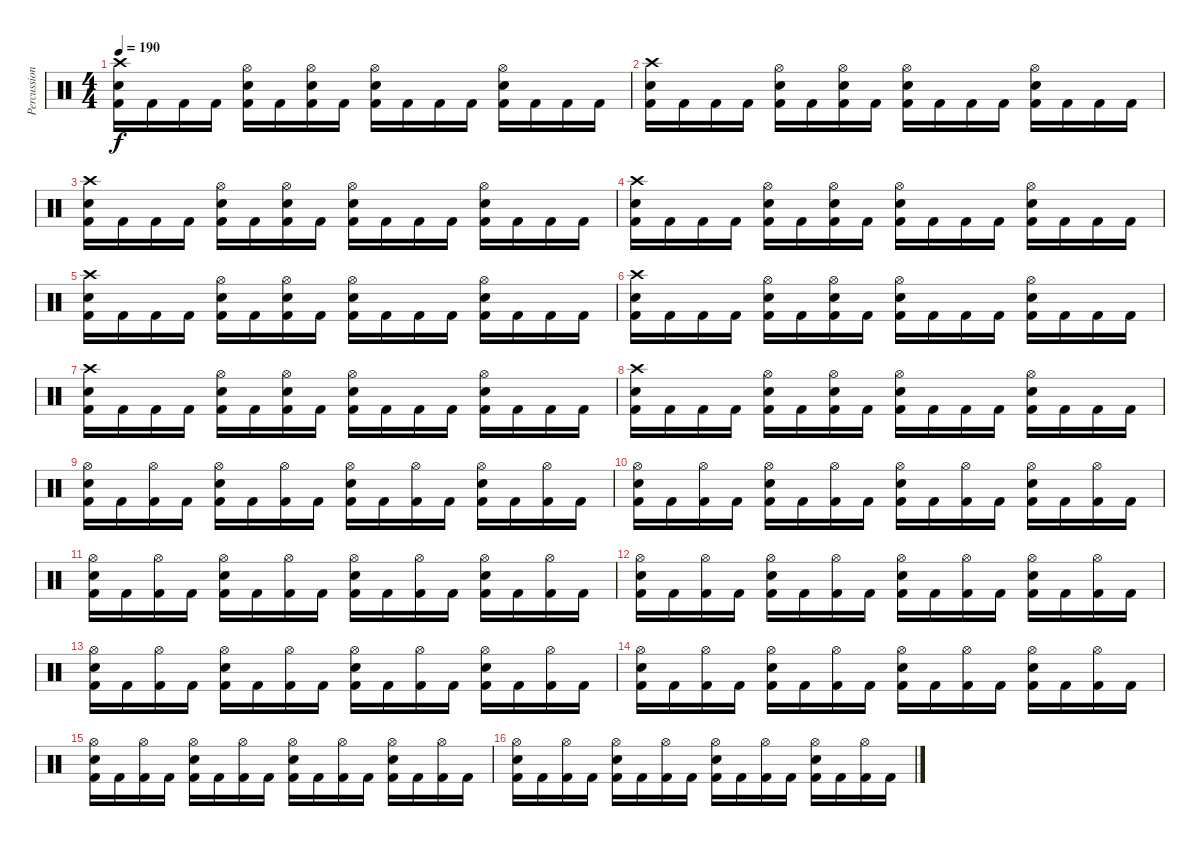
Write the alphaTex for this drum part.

\track ("Percussion" "Percussion") {instrument percussion}
\staff {score}
\articulation defaults
\ts (4 4)
\tempo 190
\clef neutral
\ks c
("Kick (hit) 2" "Snare (hit) 2" "Crash high (hit)").16{dy f} "Kick (hit) 2".16 "Kick (hit) 2".16 "Kick (hit) 2".16 ("Kick (hit) 2" "Snare (hit) 2" "Hi-Hat (open)").16 "Kick (hit) 2".16 ("Kick (hit) 2" "Snare (hit) 2" "Hi-Hat (open)").16 "Kick (hit) 2".16 ("Kick (hit) 2" "Snare (hit) 2" "Hi-Hat (open)").16 "Kick (hit) 2".16 "Kick (hit) 2".16 "Kick (hit) 2".16 ("Kick (hit) 2" "Snare (hit) 2" "Hi-Hat (open)").16 "Kick (hit) 2".16 "Kick (hit) 2".16 "Kick (hit) 2".16 |
("Kick (hit) 2" "Snare (hit) 2" "Crash high (hit)").16 "Kick (hit) 2".16 "Kick (hit) 2".16 "Kick (hit) 2".16 ("Kick (hit) 2" "Snare (hit) 2" "Hi-Hat (open)").16 "Kick (hit) 2".16 ("Kick (hit) 2" "Snare (hit) 2" "Hi-Hat (open)").16 "Kick (hit) 2".16 ("Kick (hit) 2" "Snare (hit) 2" "Hi-Hat (open)").16 "Kick (hit) 2".16 "Kick (hit) 2".16 "Kick (hit) 2".16 ("Kick (hit) 2" "Snare (hit) 2" "Hi-Hat (open)").16 "Kick (hit) 2".16 "Kick (hit) 2".16 "Kick (hit) 2".16 |
("Kick (hit) 2" "Snare (hit) 2" "Crash high (hit)").16 "Kick (hit) 2".16 "Kick (hit) 2".16 "Kick (hit) 2".16 ("Kick (hit) 2" "Snare (hit) 2" "Hi-Hat (open)").16 "Kick (hit) 2".16 ("Kick (hit) 2" "Snare (hit) 2" "Hi-Hat (open)").16 "Kick (hit) 2".16 ("Kick (hit) 2" "Snare (hit) 2" "Hi-Hat (open)").16 "Kick (hit) 2".16 "Kick (hit) 2".16 "Kick (hit) 2".16 ("Kick (hit) 2" "Snare (hit) 2" "Hi-Hat (open)").16 "Kick (hit) 2".16 "Kick (hit) 2".16 "Kick (hit) 2".16 |
("Kick (hit) 2" "Snare (hit) 2" "Crash high (hit)").16 "Kick (hit) 2".16 "Kick (hit) 2".16 "Kick (hit) 2".16 ("Kick (hit) 2" "Snare (hit) 2" "Hi-Hat (open)").16 "Kick (hit) 2".16 ("Kick (hit) 2" "Snare (hit) 2" "Hi-Hat (open)").16 "Kick (hit) 2".16 ("Kick (hit) 2" "Snare (hit) 2" "Hi-Hat (open)").16 "Kick (hit) 2".16 "Kick (hit) 2".16 "Kick (hit) 2".16 ("Kick (hit) 2" "Snare (hit) 2" "Hi-Hat (open)").16 "Kick (hit) 2".16 "Kick (hit) 2".16 "Kick (hit) 2".16 |
("Kick (hit) 2" "Snare (hit) 2" "Crash high (hit)").16 "Kick (hit) 2".16 "Kick (hit) 2".16 "Kick (hit) 2".16 ("Kick (hit) 2" "Snare (hit) 2" "Hi-Hat (open)").16 "Kick (hit) 2".16 ("Kick (hit) 2" "Snare (hit) 2" "Hi-Hat (open)").16 "Kick (hit) 2".16 ("Kick (hit) 2" "Snare (hit) 2" "Hi-Hat (open)").16 "Kick (hit) 2".16 "Kick (hit) 2".16 "Kick (hit) 2".16 ("Kick (hit) 2" "Snare (hit) 2" "Hi-Hat (open)").16 "Kick (hit) 2".16 "Kick (hit) 2".16 "Kick (hit) 2".16 |
("Kick (hit) 2" "Snare (hit) 2" "Crash high (hit)").16 "Kick (hit) 2".16 "Kick (hit) 2".16 "Kick (hit) 2".16 ("Kick (hit) 2" "Snare (hit) 2" "Hi-Hat (open)").16 "Kick (hit) 2".16 ("Kick (hit) 2" "Snare (hit) 2" "Hi-Hat (open)").16 "Kick (hit) 2".16 ("Kick (hit) 2" "Snare (hit) 2" "Hi-Hat (open)").16 "Kick (hit) 2".16 "Kick (hit) 2".16 "Kick (hit) 2".16 ("Kick (hit) 2" "Snare (hit) 2" "Hi-Hat (open)").16 "Kick (hit) 2".16 "Kick (hit) 2".16 "Kick (hit) 2".16 |
("Kick (hit) 2" "Snare (hit) 2" "Crash high (hit)").16 "Kick (hit) 2".16 "Kick (hit) 2".16 "Kick (hit) 2".16 ("Kick (hit) 2" "Snare (hit) 2" "Hi-Hat (open)").16 "Kick (hit) 2".16 ("Kick (hit) 2" "Snare (hit) 2" "Hi-Hat (open)").16 "Kick (hit) 2".16 ("Kick (hit) 2" "Snare (hit) 2" "Hi-Hat (open)").16 "Kick (hit) 2".16 "Kick (hit) 2".16 "Kick (hit) 2".16 ("Kick (hit) 2" "Snare (hit) 2" "Hi-Hat (open)").16 "Kick (hit) 2".16 "Kick (hit) 2".16 "Kick (hit) 2".16 |
("Kick (hit) 2" "Snare (hit) 2" "Crash high (hit)").16 "Kick (hit) 2".16 "Kick (hit) 2".16 "Kick (hit) 2".16 ("Kick (hit) 2" "Snare (hit) 2" "Hi-Hat (open)").16 "Kick (hit) 2".16 ("Kick (hit) 2" "Snare (hit) 2" "Hi-Hat (open)").16 "Kick (hit) 2".16 ("Kick (hit) 2" "Snare (hit) 2" "Hi-Hat (open)").16 "Kick (hit) 2".16 "Kick (hit) 2".16 "Kick (hit) 2".16 ("Kick (hit) 2" "Snare (hit) 2" "Hi-Hat (open)").16 "Kick (hit) 2".16 "Kick (hit) 2".16 "Kick (hit) 2".16 |
("Kick (hit) 2" "Snare (hit) 2" "Hi-Hat (open)").16 "Kick (hit) 2".16 ("Kick (hit) 2" "Hi-Hat (open)").16 "Kick (hit) 2".16 ("Kick (hit) 2" "Snare (hit) 2" "Hi-Hat (open)").16 "Kick (hit) 2".16 ("Kick (hit) 2" "Hi-Hat (open)").16 "Kick (hit) 2".16 ("Kick (hit) 2" "Snare (hit) 2" "Hi-Hat (open)").16 "Kick (hit) 2".16 ("Kick (hit) 2" "Hi-Hat (open)").16 "Kick (hit) 2".16 ("Kick (hit) 2" "Snare (hit) 2" "Hi-Hat (open)").16 "Kick (hit) 2".16 ("Kick (hit) 2" "Hi-Hat (open)").16 "Kick (hit) 2".16 |
("Kick (hit) 2" "Snare (hit) 2" "Hi-Hat (open)").16 "Kick (hit) 2".16 ("Kick (hit) 2" "Hi-Hat (open)").16 "Kick (hit) 2".16 ("Kick (hit) 2" "Snare (hit) 2" "Hi-Hat (open)").16 "Kick (hit) 2".16 ("Kick (hit) 2" "Hi-Hat (open)").16 "Kick (hit) 2".16 ("Kick (hit) 2" "Snare (hit) 2" "Hi-Hat (open)").16 "Kick (hit) 2".16 ("Kick (hit) 2" "Hi-Hat (open)").16 "Kick (hit) 2".16 ("Kick (hit) 2" "Snare (hit) 2" "Hi-Hat (open)").16 "Kick (hit) 2".16 ("Kick (hit) 2" "Hi-Hat (open)").16 "Kick (hit) 2".16 |
("Kick (hit) 2" "Snare (hit) 2" "Hi-Hat (open)").16 "Kick (hit) 2".16 ("Kick (hit) 2" "Hi-Hat (open)").16 "Kick (hit) 2".16 ("Kick (hit) 2" "Snare (hit) 2" "Hi-Hat (open)").16 "Kick (hit) 2".16 ("Kick (hit) 2" "Hi-Hat (open)").16 "Kick (hit) 2".16 ("Kick (hit) 2" "Snare (hit) 2" "Hi-Hat (open)").16 "Kick (hit) 2".16 ("Kick (hit) 2" "Hi-Hat (open)").16 "Kick (hit) 2".16 ("Kick (hit) 2" "Snare (hit) 2" "Hi-Hat (open)").16 "Kick (hit) 2".16 ("Kick (hit) 2" "Hi-Hat (open)").16 "Kick (hit) 2".16 |
("Kick (hit) 2" "Snare (hit) 2" "Hi-Hat (open)").16 "Kick (hit) 2".16 ("Kick (hit) 2" "Hi-Hat (open)").16 "Kick (hit) 2".16 ("Kick (hit) 2" "Snare (hit) 2" "Hi-Hat (open)").16 "Kick (hit) 2".16 ("Kick (hit) 2" "Hi-Hat (open)").16 "Kick (hit) 2".16 ("Kick (hit) 2" "Snare (hit) 2" "Hi-Hat (open)").16 "Kick (hit) 2".16 ("Kick (hit) 2" "Hi-Hat (open)").16 "Kick (hit) 2".16 ("Kick (hit) 2" "Snare (hit) 2" "Hi-Hat (open)").16 "Kick (hit) 2".16 ("Kick (hit) 2" "Hi-Hat (open)").16 "Kick (hit) 2".16 |
("Kick (hit) 2" "Snare (hit) 2" "Hi-Hat (open)").16 "Kick (hit) 2".16 ("Kick (hit) 2" "Hi-Hat (open)").16 "Kick (hit) 2".16 ("Kick (hit) 2" "Snare (hit) 2" "Hi-Hat (open)").16 "Kick (hit) 2".16 ("Kick (hit) 2" "Hi-Hat (open)").16 "Kick (hit) 2".16 ("Kick (hit) 2" "Snare (hit) 2" "Hi-Hat (open)").16 "Kick (hit) 2".16 ("Kick (hit) 2" "Hi-Hat (open)").16 "Kick (hit) 2".16 ("Kick (hit) 2" "Snare (hit) 2" "Hi-Hat (open)").16 "Kick (hit) 2".16 ("Kick (hit) 2" "Hi-Hat (open)").16 "Kick (hit) 2".16 |
("Kick (hit) 2" "Snare (hit) 2" "Hi-Hat (open)").16 "Kick (hit) 2".16 ("Kick (hit) 2" "Hi-Hat (open)").16 "Kick (hit) 2".16 ("Kick (hit) 2" "Snare (hit) 2" "Hi-Hat (open)").16 "Kick (hit) 2".16 ("Kick (hit) 2" "Hi-Hat (open)").16 "Kick (hit) 2".16 ("Kick (hit) 2" "Snare (hit) 2" "Hi-Hat (open)").16 "Kick (hit) 2".16 ("Kick (hit) 2" "Hi-Hat (open)").16 "Kick (hit) 2".16 ("Kick (hit) 2" "Snare (hit) 2" "Hi-Hat (open)").16 "Kick (hit) 2".16 ("Kick (hit) 2" "Hi-Hat (open)").16 "Kick (hit) 2".16 |
("Kick (hit) 2" "Snare (hit) 2" "Hi-Hat (open)").16 "Kick (hit) 2".16 ("Kick (hit) 2" "Hi-Hat (open)").16 "Kick (hit) 2".16 ("Kick (hit) 2" "Snare (hit) 2" "Hi-Hat (open)").16 "Kick (hit) 2".16 ("Kick (hit) 2" "Hi-Hat (open)").16 "Kick (hit) 2".16 ("Kick (hit) 2" "Snare (hit) 2" "Hi-Hat (open)").16 "Kick (hit) 2".16 ("Kick (hit) 2" "Hi-Hat (open)").16 "Kick (hit) 2".16 ("Kick (hit) 2" "Snare (hit) 2" "Hi-Hat (open)").16 "Kick (hit) 2".16 ("Kick (hit) 2" "Hi-Hat (open)").16 "Kick (hit) 2".16 |
("Kick (hit) 2" "Snare (hit) 2" "Hi-Hat (open)").16 "Kick (hit) 2".16 ("Kick (hit) 2" "Hi-Hat (open)").16 "Kick (hit) 2".16 ("Kick (hit) 2" "Snare (hit) 2" "Hi-Hat (open)").16 "Kick (hit) 2".16 ("Kick (hit) 2" "Hi-Hat (open)").16 "Kick (hit) 2".16 ("Kick (hit) 2" "Snare (hit) 2" "Hi-Hat (open)").16 "Kick (hit) 2".16 ("Kick (hit) 2" "Hi-Hat (open)").16 "Kick (hit) 2".16 ("Kick (hit) 2" "Snare (hit) 2" "Hi-Hat (open)").16 "Kick (hit) 2".16 ("Kick (hit) 2" "Hi-Hat (open)").16 "Kick (hit) 2".16
